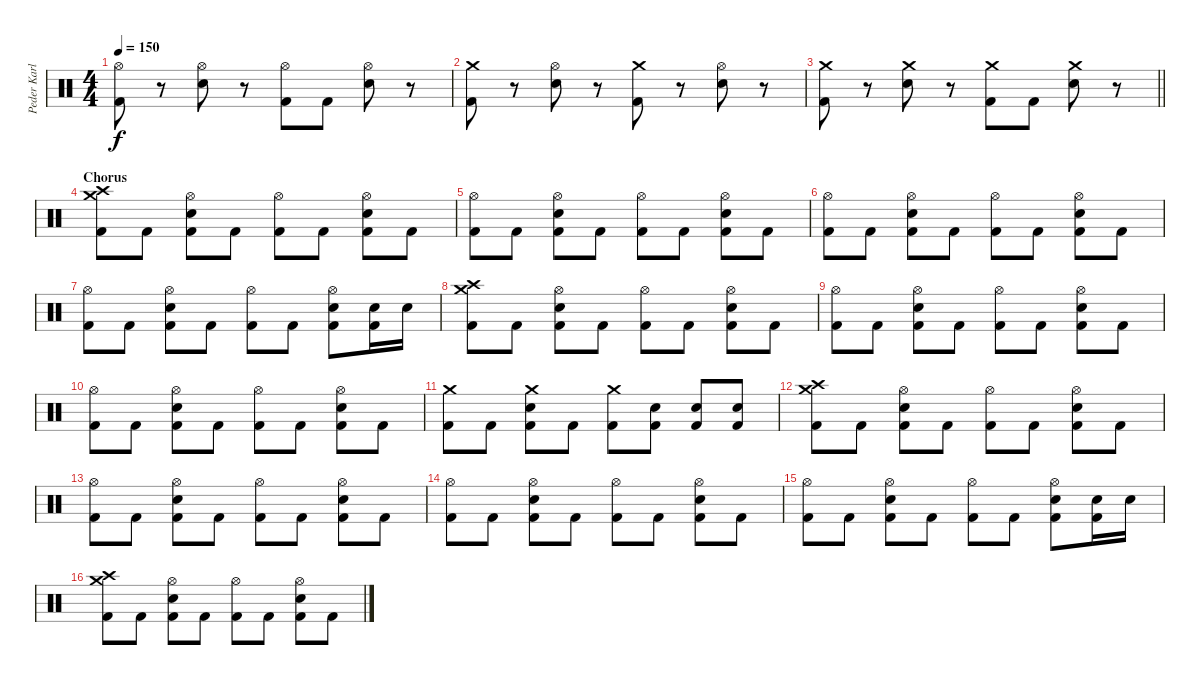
\track ("Peder Karlsson" "Peder Karl") {instrument percussion}
\staff {score}
\articulation defaults
\ts (4 4)
\tempo 150
\clef neutral
\ks c
("Hi-Hat (open)" "Kick (hit) 2").8{dy f} r.8 ("Hi-Hat (open)" "Snare (hit) 2").8 r.8 ("Hi-Hat (open)" "Kick (hit) 2").8 "Kick (hit) 2".8 ("Hi-Hat (open)" "Snare (hit) 2").8 r.8 |
("Crash medium (hit)" "Kick (hit) 2").8 r.8 ("Hi-Hat (open)" "Snare (hit) 2").8 r.8 ("Crash medium (hit)" "Kick (hit) 2").8 r.8 ("Hi-Hat (open)" "Snare (hit) 2").8 r.8 |
\barLineRight lightlight
("Crash medium (hit)" "Kick (hit) 2").8 r.8 ("Crash medium (hit)" "Snare (hit) 2").8 r.8 ("Crash medium (hit)" "Kick (hit) 2").8 "Kick (hit) 2".8 ("Crash medium (hit)" "Snare (hit) 2").8 r.8 |
\section ("" "Chorus")
("Crash medium (hit)" "Crash high (hit)" "Kick (hit) 2").8 "Kick (hit) 2".8 ("Hi-Hat (open)" "Snare (hit) 2" "Kick (hit) 2").8 "Kick (hit) 2".8 ("Hi-Hat (open)" "Kick (hit) 2").8 "Kick (hit) 2".8 ("Hi-Hat (open)" "Snare (hit) 2" "Kick (hit) 2").8 "Kick (hit) 2".8 |
("Hi-Hat (open)" "Kick (hit) 2").8 "Kick (hit) 2".8 ("Hi-Hat (open)" "Snare (hit) 2" "Kick (hit) 2").8 "Kick (hit) 2".8 ("Hi-Hat (open)" "Kick (hit) 2").8 "Kick (hit) 2".8 ("Hi-Hat (open)" "Snare (hit) 2" "Kick (hit) 2").8 "Kick (hit) 2".8 |
("Hi-Hat (open)" "Kick (hit) 2").8 "Kick (hit) 2".8 ("Hi-Hat (open)" "Snare (hit) 2" "Kick (hit) 2").8 "Kick (hit) 2".8 ("Hi-Hat (open)" "Kick (hit) 2").8 "Kick (hit) 2".8 ("Hi-Hat (open)" "Snare (hit) 2" "Kick (hit) 2").8 "Kick (hit) 2".8 |
("Hi-Hat (open)" "Kick (hit) 2").8 "Kick (hit) 2".8 ("Hi-Hat (open)" "Snare (hit) 2" "Kick (hit) 2").8 "Kick (hit) 2".8 ("Hi-Hat (open)" "Kick (hit) 2").8 "Kick (hit) 2".8 ("Hi-Hat (open)" "Snare (hit) 2" "Kick (hit) 2").8 ("Snare (hit) 2" "Kick (hit) 2").16 "Snare (hit) 2".16 |
("Crash medium (hit)" "Crash high (hit)" "Kick (hit) 2").8 "Kick (hit) 2".8 ("Hi-Hat (open)" "Snare (hit) 2" "Kick (hit) 2").8 "Kick (hit) 2".8 ("Hi-Hat (open)" "Kick (hit) 2").8 "Kick (hit) 2".8 ("Hi-Hat (open)" "Snare (hit) 2" "Kick (hit) 2").8 "Kick (hit) 2".8 |
("Hi-Hat (open)" "Kick (hit) 2").8 "Kick (hit) 2".8 ("Hi-Hat (open)" "Snare (hit) 2" "Kick (hit) 2").8 "Kick (hit) 2".8 ("Hi-Hat (open)" "Kick (hit) 2").8 "Kick (hit) 2".8 ("Hi-Hat (open)" "Snare (hit) 2" "Kick (hit) 2").8 "Kick (hit) 2".8 |
("Hi-Hat (open)" "Kick (hit) 2").8 "Kick (hit) 2".8 ("Hi-Hat (open)" "Snare (hit) 2" "Kick (hit) 2").8 "Kick (hit) 2".8 ("Hi-Hat (open)" "Kick (hit) 2").8 "Kick (hit) 2".8 ("Hi-Hat (open)" "Snare (hit) 2" "Kick (hit) 2").8 "Kick (hit) 2".8 |
("Crash medium (hit)" "Kick (hit) 2").8 "Kick (hit) 2".8 ("Crash medium (hit)" "Snare (hit) 2" "Kick (hit) 2").8 "Kick (hit) 2".8 ("Crash medium (hit)" "Kick (hit) 2").8 ("Snare (hit) 2" "Kick (hit) 2").8 ("Snare (hit) 2" "Kick (hit) 2").8 ("Snare (hit) 2" "Kick (hit) 2").8 |
("Crash medium (hit)" "Crash high (hit)" "Kick (hit) 2").8 "Kick (hit) 2".8 ("Hi-Hat (open)" "Snare (hit) 2" "Kick (hit) 2").8 "Kick (hit) 2".8 ("Hi-Hat (open)" "Kick (hit) 2").8 "Kick (hit) 2".8 ("Hi-Hat (open)" "Snare (hit) 2" "Kick (hit) 2").8 "Kick (hit) 2".8 |
("Hi-Hat (open)" "Kick (hit) 2").8 "Kick (hit) 2".8 ("Hi-Hat (open)" "Snare (hit) 2" "Kick (hit) 2").8 "Kick (hit) 2".8 ("Hi-Hat (open)" "Kick (hit) 2").8 "Kick (hit) 2".8 ("Hi-Hat (open)" "Snare (hit) 2" "Kick (hit) 2").8 "Kick (hit) 2".8 |
("Hi-Hat (open)" "Kick (hit) 2").8 "Kick (hit) 2".8 ("Hi-Hat (open)" "Snare (hit) 2" "Kick (hit) 2").8 "Kick (hit) 2".8 ("Hi-Hat (open)" "Kick (hit) 2").8 "Kick (hit) 2".8 ("Hi-Hat (open)" "Snare (hit) 2" "Kick (hit) 2").8 "Kick (hit) 2".8 |
("Hi-Hat (open)" "Kick (hit) 2").8 "Kick (hit) 2".8 ("Hi-Hat (open)" "Snare (hit) 2" "Kick (hit) 2").8 "Kick (hit) 2".8 ("Hi-Hat (open)" "Kick (hit) 2").8 "Kick (hit) 2".8 ("Hi-Hat (open)" "Snare (hit) 2" "Kick (hit) 2").8 ("Snare (hit) 2" "Kick (hit) 2").16 "Snare (hit) 2".16 |
("Crash medium (hit)" "Crash high (hit)" "Kick (hit) 2").8 "Kick (hit) 2".8 ("Hi-Hat (open)" "Snare (hit) 2" "Kick (hit) 2").8 "Kick (hit) 2".8 ("Hi-Hat (open)" "Kick (hit) 2").8 "Kick (hit) 2".8 ("Hi-Hat (open)" "Snare (hit) 2" "Kick (hit) 2").8 "Kick (hit) 2".8
